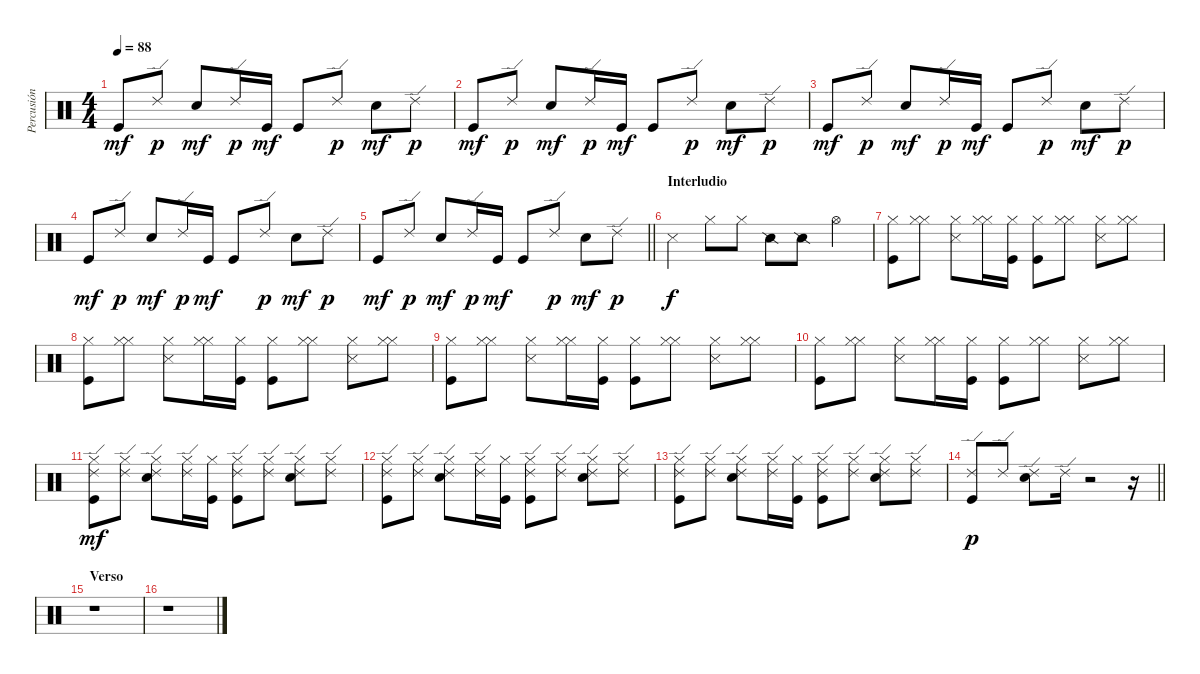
\track ("Percusión" "Percusión") {instrument percussion}
\staff {score}
\articulation defaults
\ts (4 4)
\tempo 88
\clef neutral
\ks c "Kick (hit)".8{dy mf} "Ride (edge) 2".8{dy p} "Electric Snare (hit)".8{dy mf} "Ride (edge) 2".16{dy p} "Kick (hit)".16{dy mf} "Kick (hit)".8 "Ride (edge) 2".8{dy p} "Electric Snare (hit)".8{dy mf} "Ride (edge) 2".8{dy p}
|
"Kick (hit)".8{dy mf} "Ride (edge) 2".8{dy p} "Electric Snare (hit)".8{dy mf} "Ride (edge) 2".16{dy p} "Kick (hit)".16{dy mf} "Kick (hit)".8 "Ride (edge) 2".8{dy p} "Electric Snare (hit)".8{dy mf} "Ride (edge) 2".8{dy p} |
"Kick (hit)".8{dy mf} "Ride (edge) 2".8{dy p} "Electric Snare (hit)".8{dy mf} "Ride (edge) 2".16{dy p} "Kick (hit)".16{dy mf} "Kick (hit)".8 "Ride (edge) 2".8{dy p} "Electric Snare (hit)".8{dy mf} "Ride (edge) 2".8{dy p} |
"Kick (hit)".8{dy mf} "Ride (edge) 2".8{dy p} "Electric Snare (hit)".8{dy mf} "Ride (edge) 2".16{dy p} "Kick (hit)".16{dy mf} "Kick (hit)".8 "Ride (edge) 2".8{dy p} "Electric Snare (hit)".8{dy mf} "Ride (edge) 2".8{dy p} |
\barLineRight lightlight "Kick (hit)".8{dy mf} "Ride (edge) 2".8{dy p} "Electric Snare (hit)".8{dy mf} "Ride (edge) 2".16{dy p} "Kick (hit)".16{dy mf} "Kick (hit)".8 "Ride (edge) 2".8{dy p} "Electric Snare (hit)".8{dy mf} "Ride (edge) 2".8{dy p}
|
\section ("" "Interludio")
"Snare (side stick) 3".4{dy f} "Hi-Hat (closed)".8 "Hi-Hat (closed)".8 "Snare (side stick) 2".8 "Snare (side stick) 2".8 "Hi-Hat (open)".4 |
("Kick (hit)" "Hi-Hat (closed)").8 ("Hi-Hat (closed)" "Hi-Hat (closed)").8 ("Snare (side stick) 3" "Hi-Hat (closed)").8 ("Hi-Hat (closed)" "Hi-Hat (closed)").16 ("Kick (hit)" "Hi-Hat (closed)").16 ("Kick (hit)" "Hi-Hat (closed)").8 ("Hi-Hat (closed)" "Hi-Hat (closed)").8 ("Snare (side stick) 3" "Hi-Hat (closed)").8 ("Hi-Hat (closed)" "Hi-Hat (closed)").8 |
("Kick (hit)" "Hi-Hat (closed)").8 ("Hi-Hat (closed)" "Hi-Hat (closed)").8 ("Snare (side stick) 3" "Hi-Hat (closed)").8 ("Hi-Hat (closed)" "Hi-Hat (closed)").16 ("Kick (hit)" "Hi-Hat (closed)").16 ("Kick (hit)" "Hi-Hat (closed)").8 ("Hi-Hat (closed)" "Hi-Hat (closed)").8 ("Snare (side stick) 3" "Hi-Hat (closed)").8 ("Hi-Hat (closed)" "Hi-Hat (closed)").8 |
("Kick (hit)" "Hi-Hat (closed)").8 ("Hi-Hat (closed)" "Hi-Hat (closed)").8 ("Snare (side stick) 3" "Hi-Hat (closed)").8 ("Hi-Hat (closed)" "Hi-Hat (closed)").16 ("Kick (hit)" "Hi-Hat (closed)").16 ("Kick (hit)" "Hi-Hat (closed)").8 ("Hi-Hat (closed)" "Hi-Hat (closed)").8 ("Snare (side stick) 3" "Hi-Hat (closed)").8 ("Hi-Hat (closed)" "Hi-Hat (closed)").8 |
("Kick (hit)" "Hi-Hat (closed)").8 ("Hi-Hat (closed)" "Hi-Hat (closed)").8 ("Snare (side stick) 3" "Hi-Hat (closed)").8 ("Hi-Hat (closed)" "Hi-Hat (closed)").16 ("Kick (hit)" "Hi-Hat (closed)").16 ("Kick (hit)" "Hi-Hat (closed)").8 ("Hi-Hat (closed)" "Hi-Hat (closed)").8 ("Snare (side stick) 3" "Hi-Hat (closed)").8 ("Hi-Hat (closed)" "Hi-Hat (closed)").8 |
("Kick (hit)" "Ride (edge) 2" "Hi-Hat (closed)").8{dy mf} ("Ride (edge) 2" "Hi-Hat (closed)").8 ("Electric Snare (hit)" "Ride (edge) 2" "Hi-Hat (closed)").8 ("Ride (edge) 2" "Hi-Hat (closed)").16 ("Kick (hit)" "Hi-Hat (closed)").16 ("Kick (hit)" "Ride (edge) 2" "Hi-Hat (closed)").8 ("Ride (edge) 2" "Hi-Hat (closed)").8 ("Electric Snare (hit)" "Ride (edge) 2" "Hi-Hat (closed)").8 ("Ride (edge) 2" "Hi-Hat (closed)").8 |
("Kick (hit)" "Ride (edge) 2" "Hi-Hat (closed)").8 ("Ride (edge) 2" "Hi-Hat (closed)").8 ("Electric Snare (hit)" "Ride (edge) 2" "Hi-Hat (closed)").8 ("Ride (edge) 2" "Hi-Hat (closed)").16 ("Kick (hit)" "Hi-Hat (closed)").16 ("Kick (hit)" "Ride (edge) 2" "Hi-Hat (closed)").8 ("Ride (edge) 2" "Hi-Hat (closed)").8 ("Electric Snare (hit)" "Ride (edge) 2" "Hi-Hat (closed)").8 ("Ride (edge) 2" "Hi-Hat (closed)").8 |
("Kick (hit)" "Ride (edge) 2" "Hi-Hat (closed)").8 ("Ride (edge) 2" "Hi-Hat (closed)").8 ("Electric Snare (hit)" "Ride (edge) 2" "Hi-Hat (closed)").8 ("Ride (edge) 2" "Hi-Hat (closed)").16 ("Kick (hit)" "Hi-Hat (closed)").16 ("Kick (hit)" "Ride (edge) 2" "Hi-Hat (closed)").8 ("Ride (edge) 2" "Hi-Hat (closed)").8 ("Electric Snare (hit)" "Ride (edge) 2" "Hi-Hat (closed)").8 ("Ride (edge) 2" "Hi-Hat (closed)").8 |
\barLineRight lightlight
("Kick (hit)" "Ride (edge) 2").8{dy p} "Ride (edge) 2".8 ("Electric Snare (hit)" "Ride (edge) 2").8 "Ride (edge) 2".16 r.2 r.16 |
\section ("" "Verso")
r.1 |
r.1
